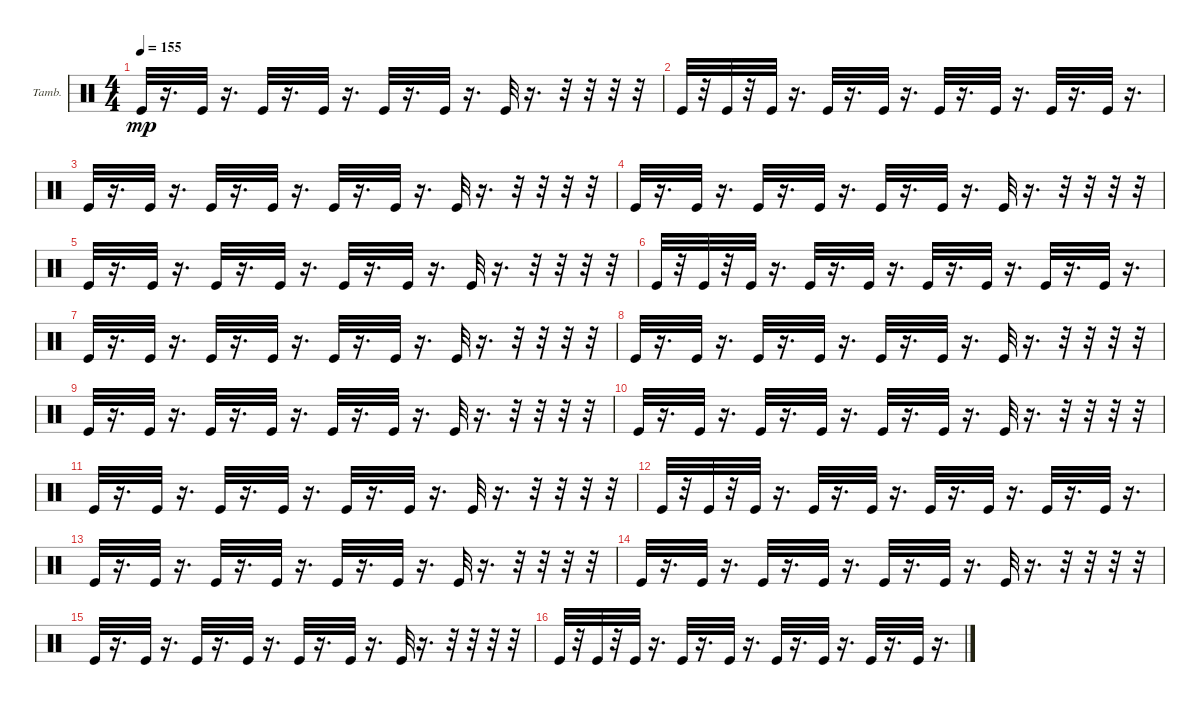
\bracketExtendMode groupsimilarinstruments
\firstSystemTrackNameOrientation horizontal
\otherSystemsTrackNameOrientation horizontal
\track ("Е. Кулаков" "Tamb.") {instrument percussion}
\staff {score}
\articulation defaults
\ts (4 4)
\tempo 155
\clef neutral
\ks c "Kick (hit)".32{dy mp}
r.16{d} "Kick (hit)".32 r.16{d} "Kick (hit)".32 r.16{d} "Kick (hit)".32 r.16{d} "Kick (hit)".32 r.16{d} "Kick (hit)".32 r.16{d} "Kick (hit)".32 r.16{d} r.32 r.32 r.32 r.32 |
"Kick (hit)".32 r.32 "Kick (hit)".32 r.32 "Kick (hit)".32 r.16{d} "Kick (hit)".32 r.16{d} "Kick (hit)".32 r.16{d} "Kick (hit)".32 r.16{d} "Kick (hit)".32 r.16{d} "Kick (hit)".32 r.16{d} "Kick (hit)".32 r.16{d} |
"Kick (hit)".32 r.16{d} "Kick (hit)".32 r.16{d} "Kick (hit)".32 r.16{d} "Kick (hit)".32 r.16{d} "Kick (hit)".32 r.16{d} "Kick (hit)".32 r.16{d} "Kick (hit)".32 r.16{d} r.32 r.32 r.32 r.32 |
"Kick (hit)".32 r.16{d} "Kick (hit)".32 r.16{d} "Kick (hit)".32 r.16{d} "Kick (hit)".32 r.16{d} "Kick (hit)".32 r.16{d} "Kick (hit)".32 r.16{d} "Kick (hit)".32 r.16{d} r.32 r.32 r.32 r.32 |
"Kick (hit)".32 r.16{d} "Kick (hit)".32 r.16{d} "Kick (hit)".32 r.16{d} "Kick (hit)".32 r.16{d} "Kick (hit)".32 r.16{d} "Kick (hit)".32 r.16{d} "Kick (hit)".32 r.16{d} r.32 r.32 r.32 r.32 |
"Kick (hit)".32 r.32 "Kick (hit)".32 r.32 "Kick (hit)".32 r.16{d} "Kick (hit)".32 r.16{d} "Kick (hit)".32 r.16{d} "Kick (hit)".32 r.16{d} "Kick (hit)".32 r.16{d} "Kick (hit)".32 r.16{d} "Kick (hit)".32 r.16{d} |
"Kick (hit)".32 r.16{d} "Kick (hit)".32 r.16{d} "Kick (hit)".32 r.16{d} "Kick (hit)".32 r.16{d} "Kick (hit)".32 r.16{d} "Kick (hit)".32 r.16{d} "Kick (hit)".32 r.16{d} r.32 r.32 r.32 r.32 |
"Kick (hit)".32 r.16{d} "Kick (hit)".32 r.16{d} "Kick (hit)".32 r.16{d} "Kick (hit)".32 r.16{d} "Kick (hit)".32 r.16{d} "Kick (hit)".32 r.16{d} "Kick (hit)".32 r.16{d} r.32 r.32 r.32 r.32 |
"Kick (hit)".32 r.16{d} "Kick (hit)".32 r.16{d} "Kick (hit)".32 r.16{d} "Kick (hit)".32 r.16{d} "Kick (hit)".32 r.16{d} "Kick (hit)".32 r.16{d} "Kick (hit)".32 r.16{d} r.32 r.32 r.32 r.32 |
"Kick (hit)".32 r.16{d} "Kick (hit)".32 r.16{d} "Kick (hit)".32 r.16{d} "Kick (hit)".32 r.16{d} "Kick (hit)".32 r.16{d} "Kick (hit)".32 r.16{d} "Kick (hit)".32 r.16{d} r.32 r.32 r.32 r.32 |
"Kick (hit)".32 r.16{d} "Kick (hit)".32 r.16{d} "Kick (hit)".32 r.16{d} "Kick (hit)".32 r.16{d} "Kick (hit)".32 r.16{d} "Kick (hit)".32 r.16{d} "Kick (hit)".32 r.16{d} r.32 r.32 r.32 r.32 |
"Kick (hit)".32 r.32 "Kick (hit)".32 r.32 "Kick (hit)".32 r.16{d} "Kick (hit)".32 r.16{d} "Kick (hit)".32 r.16{d} "Kick (hit)".32 r.16{d} "Kick (hit)".32 r.16{d} "Kick (hit)".32 r.16{d} "Kick (hit)".32 r.16{d} |
"Kick (hit)".32 r.16{d} "Kick (hit)".32 r.16{d} "Kick (hit)".32 r.16{d} "Kick (hit)".32 r.16{d} "Kick (hit)".32 r.16{d} "Kick (hit)".32 r.16{d} "Kick (hit)".32 r.16{d} r.32 r.32 r.32 r.32 |
"Kick (hit)".32 r.16{d} "Kick (hit)".32 r.16{d} "Kick (hit)".32 r.16{d} "Kick (hit)".32 r.16{d} "Kick (hit)".32 r.16{d} "Kick (hit)".32 r.16{d} "Kick (hit)".32 r.16{d} r.32 r.32 r.32 r.32 |
"Kick (hit)".32 r.16{d} "Kick (hit)".32 r.16{d} "Kick (hit)".32 r.16{d} "Kick (hit)".32 r.16{d} "Kick (hit)".32 r.16{d} "Kick (hit)".32 r.16{d} "Kick (hit)".32 r.16{d} r.32 r.32 r.32 r.32 |
"Kick (hit)".32 r.32 "Kick (hit)".32 r.32 "Kick (hit)".32 r.16{d} "Kick (hit)".32 r.16{d} "Kick (hit)".32 r.16{d} "Kick (hit)".32 r.16{d} "Kick (hit)".32 r.16{d} "Kick (hit)".32 r.16{d} "Kick (hit)".32 r.16{d}
